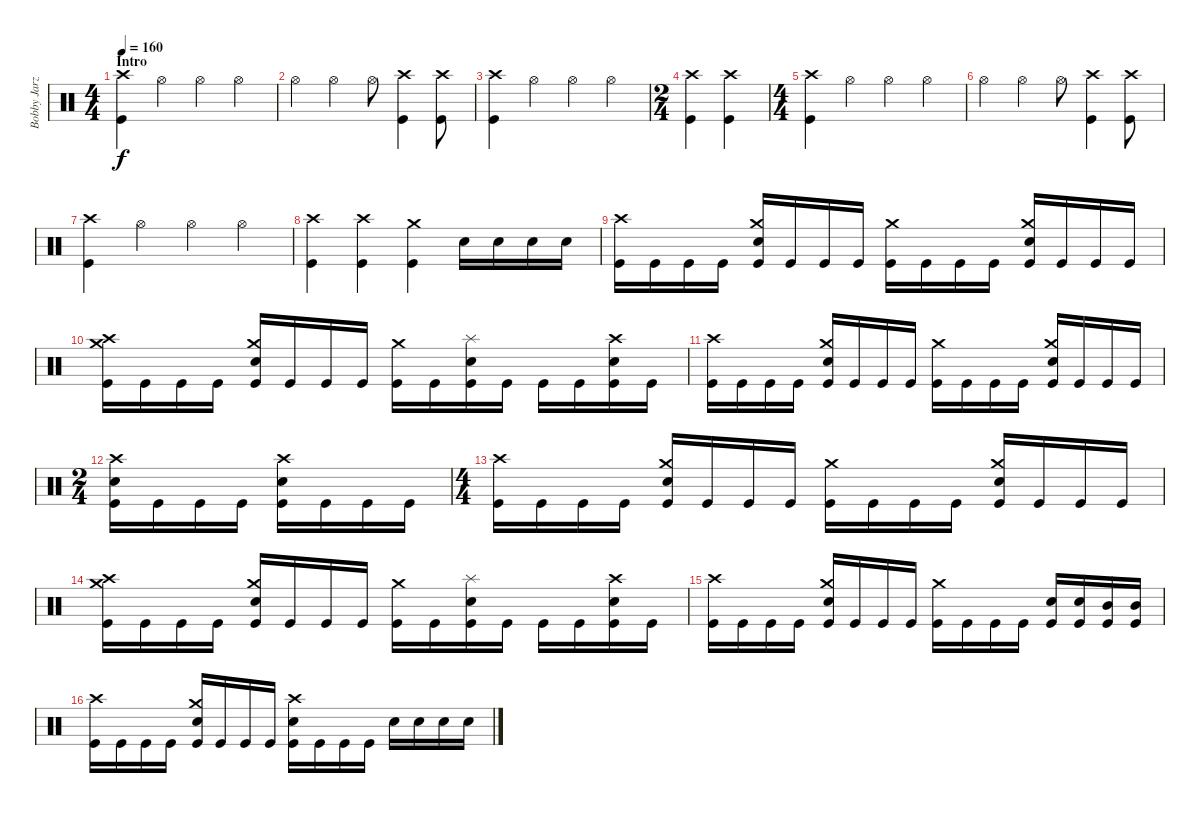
\track ("Bobby Jarzombek" "Bobby Jarz") {instrument percussion}
\staff {score}
\articulation defaults
\ts (4 4)
\section ("" "Intro")
\tempo 160
\clef neutral
\ks c
("Crash high (hit)" "Kick (hit)").4{dy f} "Hi-Hat (open)".4 "Hi-Hat (open)".4 "Hi-Hat (open)".4 |
"Hi-Hat (open)".4 "Hi-Hat (open)".4 "Hi-Hat (open)".8 ("Crash high (hit)" "Kick (hit)").4 ("Crash high (hit)" "Kick (hit)").8 |
("Crash high (hit)" "Kick (hit)").4 "Hi-Hat (open)".4 "Hi-Hat (open)".4 "Hi-Hat (open)".4 |
\ts (2 4)
("Crash high (hit)" "Kick (hit)").4 ("Crash high (hit)" "Kick (hit)").4 |
\ts (4 4)
("Crash high (hit)" "Kick (hit)").4 "Hi-Hat (open)".4 "Hi-Hat (open)".4 "Hi-Hat (open)".4 |
"Hi-Hat (open)".4 "Hi-Hat (open)".4 "Hi-Hat (open)".8 ("Crash high (hit)" "Kick (hit)").4 ("Crash high (hit)" "Kick (hit)").8 |
("Crash high (hit)" "Kick (hit)").4 "Hi-Hat (open)".4 "Hi-Hat (open)".4 "Hi-Hat (open)".4 |
("Crash high (hit)" "Kick (hit)").4 ("Crash high (hit)" "Kick (hit)").4 ("Crash medium (hit)" "Kick (hit)").4 "Electric Snare (hit)".16 "Electric Snare (hit)".16 "Electric Snare (hit)".16 "Electric Snare (hit)".16 |
("Crash high (hit)" "Kick (hit)").16 "Kick (hit)".16 "Kick (hit)".16 "Kick (hit)".16 ("Crash medium (hit)" "Electric Snare (hit)" "Kick (hit)").16 "Kick (hit)".16 "Kick (hit)".16 "Kick (hit)".16 ("Crash medium (hit)" "Kick (hit)").16 "Kick (hit)".16 "Kick (hit)".16 "Kick (hit)".16 ("Crash medium (hit)" "Electric Snare (hit)" "Kick (hit)").16 "Kick (hit)".16 "Kick (hit)".16 "Kick (hit)".16 |
("Crash high (hit)" "Crash medium (hit)" "Kick (hit)").16 "Kick (hit)".16 "Kick (hit)".16 "Kick (hit)".16 ("Crash medium (hit)" "Electric Snare (hit)" "Kick (hit)").16 "Kick (hit)".16 "Kick (hit)".16 "Kick (hit)".16 ("Crash medium (hit)" "Kick (hit)").16 "Kick (hit)".16 ("Splash (hit)" "Electric Snare (hit)" "Kick (hit)").16 "Kick (hit)".16 "Kick (hit)".16 "Kick (hit)".16 ("Crash high (hit)" "Electric Snare (hit)" "Kick (hit)").16 "Kick (hit)".16 |
("Crash high (hit)" "Kick (hit)").16 "Kick (hit)".16 "Kick (hit)".16 "Kick (hit)".16 ("Crash medium (hit)" "Electric Snare (hit)" "Kick (hit)").16 "Kick (hit)".16 "Kick (hit)".16 "Kick (hit)".16 ("Crash medium (hit)" "Kick (hit)").16 "Kick (hit)".16 "Kick (hit)".16 "Kick (hit)".16 ("Crash medium (hit)" "Electric Snare (hit)" "Kick (hit)").16 "Kick (hit)".16 "Kick (hit)".16 "Kick (hit)".16 |
\ts (2 4)
("Crash high (hit)" "Electric Snare (hit)" "Kick (hit)").16 "Kick (hit)".16 "Kick (hit)".16 "Kick (hit)".16 ("Crash high (hit)" "Electric Snare (hit)" "Kick (hit)").16 "Kick (hit)".16 "Kick (hit)".16 "Kick (hit)".16 |
\ts (4 4)
("Crash high (hit)" "Kick (hit)").16 "Kick (hit)".16 "Kick (hit)".16 "Kick (hit)".16 ("Crash medium (hit)" "Electric Snare (hit)" "Kick (hit)").16 "Kick (hit)".16 "Kick (hit)".16 "Kick (hit)".16 ("Crash medium (hit)" "Kick (hit)").16 "Kick (hit)".16 "Kick (hit)".16 "Kick (hit)".16 ("Crash medium (hit)" "Electric Snare (hit)" "Kick (hit)").16 "Kick (hit)".16 "Kick (hit)".16 "Kick (hit)".16 |
("Crash high (hit)" "Crash medium (hit)" "Kick (hit)").16 "Kick (hit)".16 "Kick (hit)".16 "Kick (hit)".16 ("Crash medium (hit)" "Electric Snare (hit)" "Kick (hit)").16 "Kick (hit)".16 "Kick (hit)".16 "Kick (hit)".16 ("Crash medium (hit)" "Kick (hit)").16 "Kick (hit)".16 ("Splash (hit)" "Electric Snare (hit)" "Kick (hit)").16 "Kick (hit)".16 "Kick (hit)".16 "Kick (hit)".16 ("Crash high (hit)" "Electric Snare (hit)" "Kick (hit)").16 "Kick (hit)".16 |
("Crash high (hit)" "Kick (hit)").16 "Kick (hit)".16 "Kick (hit)".16 "Kick (hit)".16 ("Crash medium (hit)" "Electric Snare (hit)" "Kick (hit)").16 "Kick (hit)".16 "Kick (hit)".16 "Kick (hit)".16 ("Crash medium (hit)" "Kick (hit)").16 "Kick (hit)".16 "Kick (hit)".16 "Kick (hit)".16 ("Electric Snare (hit)" "Kick (hit)").16 ("Electric Snare (hit)" "Kick (hit)").16 ("Mid Tom (hit)" "Kick (hit)").16 ("Mid Tom (hit)" "Kick (hit)").16 |
("Crash high (hit)" "Kick (hit)").16 "Kick (hit)".16 "Kick (hit)".16 "Kick (hit)".16 ("Crash medium (hit)" "Electric Snare (hit)" "Kick (hit)").16 "Kick (hit)".16 "Kick (hit)".16 "Kick (hit)".16 ("Crash high (hit)" "Electric Snare (hit)" "Kick (hit)").16 "Kick (hit)".16 "Kick (hit)".16 "Kick (hit)".16 "Electric Snare (hit)".16 "Electric Snare (hit)".16 "Electric Snare (hit)".16 "Electric Snare (hit)".16
